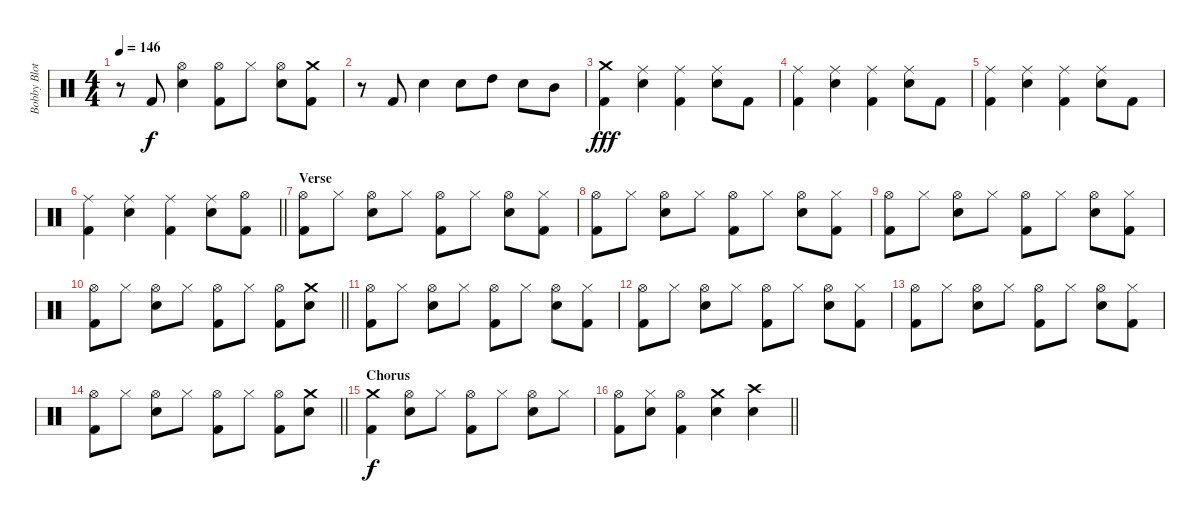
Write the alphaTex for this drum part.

\track ("Bobby Blotzer - Drums" "Bobby Blot") {instrument percussion}
\staff {score}
\articulation defaults
\ts (4 4)
\tempo 146
\clef neutral
\ks c
r.8{dy f} "Kick (hit) 2".8 ("Hi-Hat (open)" "Snare (hit) 2").4 ("Hi-Hat (open)" "Kick (hit) 2").8 "Hi-Hat (closed)".8 ("Hi-Hat (open)" "Snare (hit) 2").8 ("Crash medium (hit)" "Kick (hit) 2").8 |
r.8 "Kick (hit) 2".8 "Snare (hit) 2".4 "Snare (hit) 2".8 "High Tom (hit)".8 "Snare (hit) 2".8 "Mid Tom (hit)".8 |
("Crash medium (hit)" "Kick (hit) 2").4{dy fff} ("Ride (middle)" "Snare (hit) 2").4 ("Ride (middle)" "Kick (hit) 2").4 ("Ride (middle)" "Snare (hit) 2").8 "Kick (hit) 2".8 |
("Ride (middle)" "Kick (hit) 2").4 ("Ride (middle)" "Snare (hit) 2").4 ("Ride (middle)" "Kick (hit) 2").4 ("Ride (middle)" "Snare (hit) 2").8 "Kick (hit) 2".8 |
("Ride (middle)" "Kick (hit) 2").4 ("Ride (middle)" "Snare (hit) 2").4 ("Ride (middle)" "Kick (hit) 2").4 ("Ride (middle)" "Snare (hit) 2").8 "Kick (hit) 2".8 |
\barLineRight lightlight
("Ride (middle)" "Kick (hit) 2").4 ("Ride (middle)" "Snare (hit) 2").4 ("Ride (middle)" "Kick (hit) 2").4 ("Ride (middle)" "Snare (hit) 2").8 ("Hi-Hat (open)" "Kick (hit) 2").8 |
\section ("" "Verse")
("Hi-Hat (open)" "Kick (hit) 2").8 "Hi-Hat (closed)".8 ("Hi-Hat (open)" "Snare (hit) 2").8 "Hi-Hat (closed)".8 ("Hi-Hat (open)" "Kick (hit) 2").8 "Hi-Hat (closed)".8 ("Hi-Hat (open)" "Snare (hit) 2").8 ("Hi-Hat (closed)" "Kick (hit) 2").8 |
("Hi-Hat (open)" "Kick (hit) 2").8 "Hi-Hat (closed)".8 ("Hi-Hat (open)" "Snare (hit) 2").8 "Hi-Hat (closed)".8 ("Hi-Hat (open)" "Kick (hit) 2").8 "Hi-Hat (closed)".8 ("Hi-Hat (open)" "Snare (hit) 2").8 ("Hi-Hat (closed)" "Kick (hit) 2").8 |
("Hi-Hat (open)" "Kick (hit) 2").8 "Hi-Hat (closed)".8 ("Hi-Hat (open)" "Snare (hit) 2").8 "Hi-Hat (closed)".8 ("Hi-Hat (open)" "Kick (hit) 2").8 "Hi-Hat (closed)".8 ("Hi-Hat (open)" "Snare (hit) 2").8 ("Hi-Hat (closed)" "Kick (hit) 2").8 |
\barLineRight lightlight
("Hi-Hat (open)" "Kick (hit) 2").8 "Hi-Hat (closed)".8 ("Hi-Hat (open)" "Snare (hit) 2").8 "Hi-Hat (closed)".8 ("Hi-Hat (open)" "Kick (hit) 2").8 "Hi-Hat (closed)".8 ("Hi-Hat (open)" "Kick (hit) 2").8 ("Crash medium (hit)" "Snare (hit) 2").8 |
("Hi-Hat (open)" "Kick (hit) 2").8 "Hi-Hat (closed)".8 ("Hi-Hat (open)" "Snare (hit) 2").8 "Hi-Hat (closed)".8 ("Hi-Hat (open)" "Kick (hit) 2").8 "Hi-Hat (closed)".8 ("Hi-Hat (open)" "Snare (hit) 2").8 ("Hi-Hat (closed)" "Kick (hit) 2").8 |
("Hi-Hat (open)" "Kick (hit) 2").8 "Hi-Hat (closed)".8 ("Hi-Hat (open)" "Snare (hit) 2").8 "Hi-Hat (closed)".8 ("Hi-Hat (open)" "Kick (hit) 2").8 "Hi-Hat (closed)".8 ("Hi-Hat (open)" "Snare (hit) 2").8 ("Hi-Hat (closed)" "Kick (hit) 2").8 |
("Hi-Hat (open)" "Kick (hit) 2").8 "Hi-Hat (closed)".8 ("Hi-Hat (open)" "Snare (hit) 2").8 "Hi-Hat (closed)".8 ("Hi-Hat (open)" "Kick (hit) 2").8 "Hi-Hat (closed)".8 ("Hi-Hat (open)" "Snare (hit) 2").8 ("Hi-Hat (closed)" "Kick (hit) 2").8 |
\barLineRight lightlight
("Hi-Hat (open)" "Kick (hit) 2").8 "Hi-Hat (closed)".8 ("Hi-Hat (open)" "Snare (hit) 2").8 "Hi-Hat (closed)".8 ("Hi-Hat (open)" "Kick (hit) 2").8 "Hi-Hat (closed)".8 ("Hi-Hat (open)" "Kick (hit) 2").8 ("Crash medium (hit)" "Snare (hit) 2").8 |
\section ("" "Chorus")
("Crash medium (hit)" "Kick (hit) 2").4{dy f} ("Hi-Hat (open)" "Snare (hit) 2").8 "Hi-Hat (closed)".8 ("Hi-Hat (open)" "Kick (hit) 2").8 "Hi-Hat (closed)".8 ("Hi-Hat (open)" "Snare (hit) 2").8 "Hi-Hat (closed)".8 |
\barLineRight lightlight
("Hi-Hat (open)" "Kick (hit) 2").8 ("Hi-Hat (closed)" "Snare (hit) 2").8 ("Hi-Hat (open)" "Kick (hit) 2").4 ("Crash medium (hit)" "Snare (hit) 2").4 ("Crash high (hit)" "Snare (hit) 2").4
